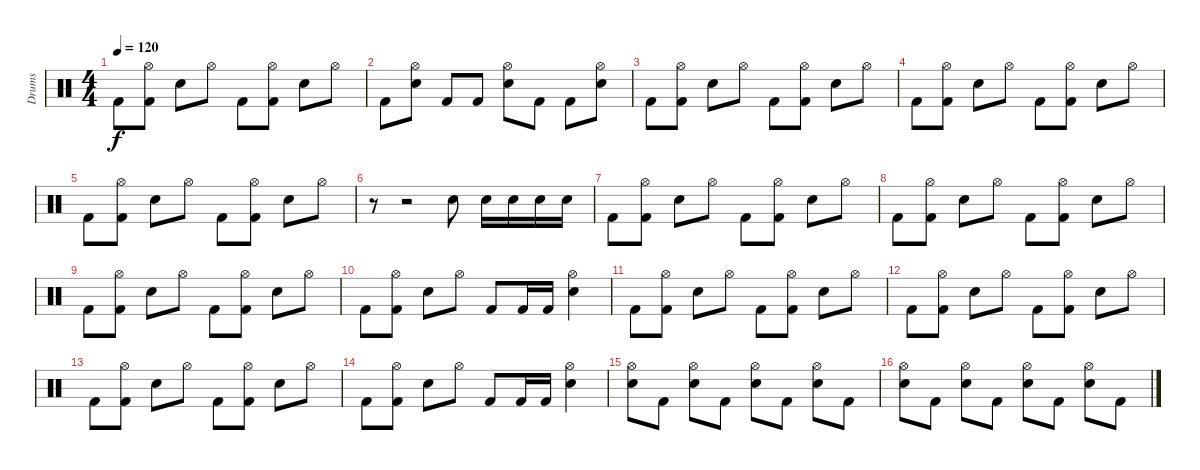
\track ("Drums" "Drums") {instrument percussion}
\staff {score}
\articulation defaults
\ts (4 4)
\tempo 120
\clef neutral
\ks c "Kick (hit) 2".8{dy f}
("Hi-Hat (open)" "Kick (hit) 2").8 "Electric Snare (hit)".8 "Hi-Hat (open)".8 "Kick (hit) 2".8 ("Hi-Hat (open)" "Kick (hit) 2").8 "Electric Snare (hit)".8 "Hi-Hat (open)".8 |
"Kick (hit) 2".8 ("Electric Snare (hit)" "Hi-Hat (open)").8 "Kick (hit) 2".8 "Kick (hit) 2".8 ("Hi-Hat (open)" "Electric Snare (hit)").8 "Kick (hit) 2".8 "Kick (hit) 2".8 ("Electric Snare (hit)" "Hi-Hat (open)").8 |
"Kick (hit) 2".8 ("Hi-Hat (open)" "Kick (hit) 2").8 "Electric Snare (hit)".8 "Hi-Hat (open)".8 "Kick (hit) 2".8 ("Hi-Hat (open)" "Kick (hit) 2").8 "Electric Snare (hit)".8 "Hi-Hat (open)".8 |
"Kick (hit) 2".8 ("Hi-Hat (open)" "Kick (hit) 2").8 "Electric Snare (hit)".8 "Hi-Hat (open)".8 "Kick (hit) 2".8 ("Hi-Hat (open)" "Kick (hit) 2").8 "Electric Snare (hit)".8 "Hi-Hat (open)".8 |
"Kick (hit) 2".8 ("Hi-Hat (open)" "Kick (hit) 2").8 "Electric Snare (hit)".8 "Hi-Hat (open)".8 "Kick (hit) 2".8 ("Hi-Hat (open)" "Kick (hit) 2").8 "Electric Snare (hit)".8 "Hi-Hat (open)".8 |
r.8 r.2 "Electric Snare (hit)".8 "Electric Snare (hit)".16 "Electric Snare (hit)".16 "Electric Snare (hit)".16 "Electric Snare (hit)".16 |
"Kick (hit) 2".8 ("Hi-Hat (open)" "Kick (hit) 2").8 "Electric Snare (hit)".8 "Hi-Hat (open)".8 "Kick (hit) 2".8 ("Hi-Hat (open)" "Kick (hit) 2").8 "Electric Snare (hit)".8 "Hi-Hat (open)".8 |
"Kick (hit) 2".8 ("Hi-Hat (open)" "Kick (hit) 2").8 "Electric Snare (hit)".8 "Hi-Hat (open)".8 "Kick (hit) 2".8 ("Hi-Hat (open)" "Kick (hit) 2").8 "Electric Snare (hit)".8 "Hi-Hat (open)".8 |
"Kick (hit) 2".8 ("Hi-Hat (open)" "Kick (hit) 2").8 "Electric Snare (hit)".8 "Hi-Hat (open)".8 "Kick (hit) 2".8 ("Hi-Hat (open)" "Kick (hit) 2").8 "Electric Snare (hit)".8 "Hi-Hat (open)".8 |
"Kick (hit) 2".8 ("Hi-Hat (open)" "Kick (hit) 2").8 "Electric Snare (hit)".8 "Hi-Hat (open)".8 "Kick (hit) 2".8 "Kick (hit) 2".16 "Kick (hit) 2".16 ("Hi-Hat (open)" "Electric Snare (hit)").4 |
"Kick (hit) 2".8 ("Hi-Hat (open)" "Kick (hit) 2").8 "Electric Snare (hit)".8 "Hi-Hat (open)".8 "Kick (hit) 2".8 ("Hi-Hat (open)" "Kick (hit) 2").8 "Electric Snare (hit)".8 "Hi-Hat (open)".8 |
"Kick (hit) 2".8 ("Hi-Hat (open)" "Kick (hit) 2").8 "Electric Snare (hit)".8 "Hi-Hat (open)".8 "Kick (hit) 2".8 ("Hi-Hat (open)" "Kick (hit) 2").8 "Electric Snare (hit)".8 "Hi-Hat (open)".8 |
"Kick (hit) 2".8 ("Hi-Hat (open)" "Kick (hit) 2").8 "Electric Snare (hit)".8 "Hi-Hat (open)".8 "Kick (hit) 2".8 ("Hi-Hat (open)" "Kick (hit) 2").8 "Electric Snare (hit)".8 "Hi-Hat (open)".8 |
"Kick (hit) 2".8 ("Hi-Hat (open)" "Kick (hit) 2").8 "Electric Snare (hit)".8 "Hi-Hat (open)".8 "Kick (hit) 2".8 "Kick (hit) 2".16 "Kick (hit) 2".16 ("Hi-Hat (open)" "Electric Snare (hit)").4 |
("Hi-Hat (open)" "Electric Snare (hit)").8 "Kick (hit) 2".8 ("Hi-Hat (open)" "Electric Snare (hit)").8 "Kick (hit) 2".8 ("Hi-Hat (open)" "Electric Snare (hit)").8 "Kick (hit) 2".8 ("Hi-Hat (open)" "Electric Snare (hit)").8 "Kick (hit) 2".8 |
("Hi-Hat (open)" "Electric Snare (hit)").8 "Kick (hit) 2".8 ("Hi-Hat (open)" "Electric Snare (hit)").8 "Kick (hit) 2".8 ("Hi-Hat (open)" "Electric Snare (hit)").8 "Kick (hit) 2".8 ("Hi-Hat (open)" "Electric Snare (hit)").8 "Kick (hit) 2".8
